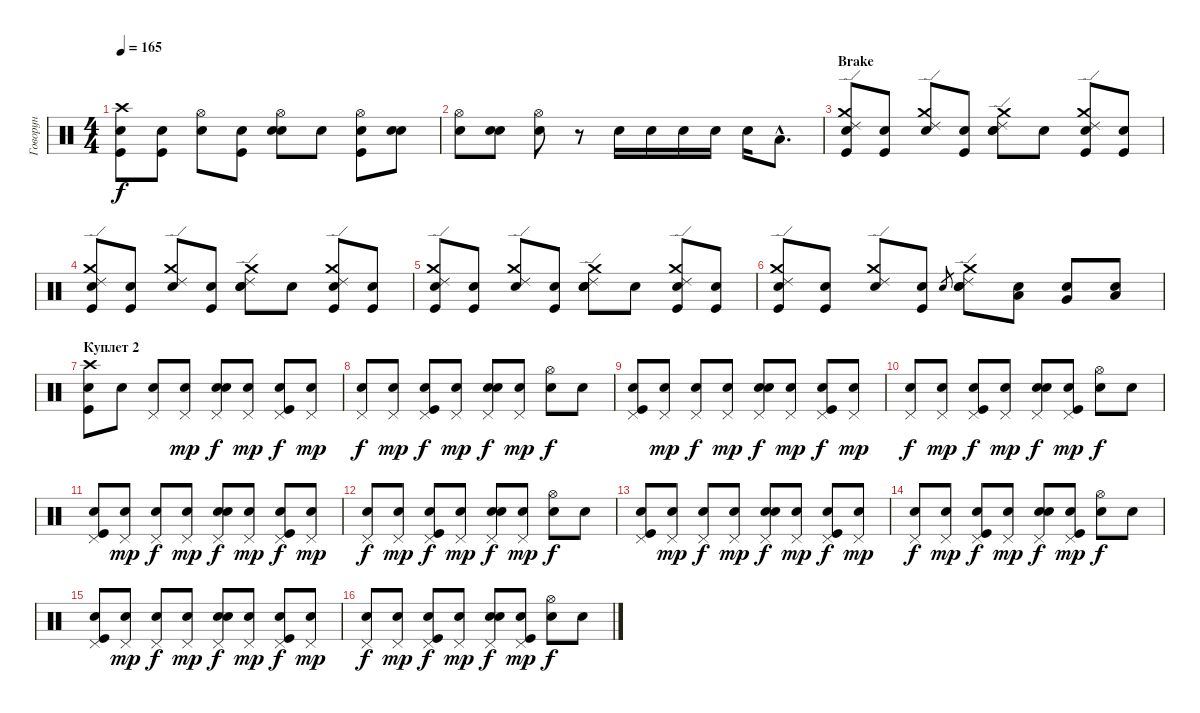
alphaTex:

\track ("Говорун" "Говорун") {instrument percussion}
\staff {score}
\articulation defaults
\ts (4 4)
\tempo 165
\clef neutral
\ks c
("Crash high (hit)" "Kick (hit)" "Snare (hit)"{x}).8{dy f} ("Kick (hit)" "Snare (hit)"{x}).8 ("Hi-Hat (open)" "Snare (hit)"{x}).8 ("Kick (hit)" "Snare (hit)"{x}).8 ("Hi-Hat (open)" "Snare (hit) 2" "Snare (hit)"{x}).8 "Snare (hit)"{x}.8 ("Hi-Hat (open)" "Kick (hit)" "Snare (hit)"{x}).8 ("Snare (hit) 2" "Snare (hit)"{x}).8 |
("Hi-Hat (open)" "Snare (hit)"{x}).8 ("Snare (hit) 2" "Snare (hit)"{x}).8 ("Hi-Hat (open)" "Snare (hit)"{x}).8 r.8 "Snare (hit) 2".16 "Snare (hit) 2".16 "Snare (hit) 2".16 "Snare (hit) 2".16 "Snare (hit) 2".16 "Low Tom (hit)"{hac}.8{d} |
\section ("" "Brake")
("Crash medium (hit)" "Ride (edge) 2" "Kick (hit)" "Snare (hit)"{x}).8 ("Kick (hit)" "Snare (hit)"{x}).8 ("Crash medium (hit)" "Ride (edge) 2" "Snare (hit)"{x}).8 ("Kick (hit)" "Snare (hit)"{x}).8 ("Crash medium (hit)" "Ride (edge) 2" "Snare (hit) 2" "Snare (hit)"{x}).8 "Snare (hit)"{x}.8 ("Crash medium (hit)" "Ride (edge) 2" "Kick (hit)" "Snare (hit)"{x}).8 ("Kick (hit)" "Snare (hit)"{x}).8 |
("Crash medium (hit)" "Ride (edge) 2" "Kick (hit)" "Snare (hit)"{x}).8 ("Kick (hit)" "Snare (hit)"{x}).8 ("Crash medium (hit)" "Ride (edge) 2" "Snare (hit)"{x}).8 ("Kick (hit)" "Snare (hit)"{x}).8 ("Crash medium (hit)" "Ride (edge) 2" "Snare (hit) 2" "Snare (hit)"{x}).8 "Snare (hit)"{x}.8 ("Crash medium (hit)" "Ride (edge) 2" "Kick (hit)" "Snare (hit)"{x}).8 ("Kick (hit)" "Snare (hit)"{x}).8 |
("Crash medium (hit)" "Ride (edge) 2" "Kick (hit)" "Snare (hit)"{x}).8 ("Kick (hit)" "Snare (hit)"{x}).8 ("Crash medium (hit)" "Ride (edge) 2" "Snare (hit)"{x}).8 ("Kick (hit)" "Snare (hit)"{x}).8 ("Crash medium (hit)" "Ride (edge) 2" "Snare (hit) 2" "Snare (hit)"{x}).8 "Snare (hit)"{x}.8 ("Crash medium (hit)" "Ride (edge) 2" "Kick (hit)" "Snare (hit)"{x}).8 ("Kick (hit)" "Snare (hit)"{x}).8 |
("Crash medium (hit)" "Ride (edge) 2" "Kick (hit)" "Snare (hit)"{x}).8 ("Kick (hit)" "Snare (hit)"{x}).8 ("Crash medium (hit)" "Ride (edge) 2" "Snare (hit)"{x}).8 ("Kick (hit)" "Snare (hit)"{x}).8 "Snare (hit) 2".8{gr} ("Crash medium (hit)" "Ride (edge) 2" "Snare (hit) 2" "Snare (hit)"{x}).8 ("Low Tom (hit)" "Snare (hit)"{x}).8 ("Very Low Tom (hit)" "Snare (hit)"{x}).8 ("Low Floor Tom (hit)" "Snare (hit)"{x}).8 |
\section ("" "Куплет 2")
("Crash high (hit)" "Kick (hit)" "Snare (hit)"{x}).8 "Snare (hit)"{x}.8 ("Pedal Hi-Hat (hit)" "Snare (hit)"{x}).8 ("Pedal Hi-Hat (hit)" "Snare (hit)"{x}).8{dy mp} ("Pedal Hi-Hat (hit)" "Snare (hit) 2" "Snare (hit)"{x}).8{dy f} ("Pedal Hi-Hat (hit)" "Snare (hit)"{x}).8{dy mp} ("Pedal Hi-Hat (hit)" "Kick (hit)" "Snare (hit)"{x}).8{dy f} ("Pedal Hi-Hat (hit)" "Snare (hit)"{x}).8{dy mp} |
("Pedal Hi-Hat (hit)" "Snare (hit)"{x}).8{dy f} ("Pedal Hi-Hat (hit)" "Snare (hit)"{x}).8{dy mp} ("Pedal Hi-Hat (hit)" "Kick (hit)" "Snare (hit)"{x}).8{dy f} ("Pedal Hi-Hat (hit)" "Snare (hit)"{x}).8{dy mp} ("Pedal Hi-Hat (hit)" "Snare (hit) 2" "Snare (hit)"{x}).8{dy f} ("Pedal Hi-Hat (hit)" "Snare (hit)"{x}).8{dy mp} ("Hi-Hat (open)" "Snare (hit)"{x}).8{dy f} "Snare (hit)"{x}.8 |
("Pedal Hi-Hat (hit)" "Kick (hit)" "Snare (hit)"{x}).8 ("Pedal Hi-Hat (hit)" "Snare (hit)"{x}).8{dy mp} ("Pedal Hi-Hat (hit)" "Snare (hit)"{x}).8{dy f} ("Pedal Hi-Hat (hit)" "Snare (hit)"{x}).8{dy mp} ("Pedal Hi-Hat (hit)" "Snare (hit) 2" "Snare (hit)"{x}).8{dy f} ("Pedal Hi-Hat (hit)" "Snare (hit)"{x}).8{dy mp} ("Pedal Hi-Hat (hit)" "Kick (hit)" "Snare (hit)"{x}).8{dy f} ("Pedal Hi-Hat (hit)" "Snare (hit)"{x}).8{dy mp} |
("Pedal Hi-Hat (hit)" "Snare (hit)"{x}).8{dy f} ("Pedal Hi-Hat (hit)" "Snare (hit)"{x}).8{dy mp} ("Pedal Hi-Hat (hit)" "Kick (hit)" "Snare (hit)"{x}).8{dy f} ("Pedal Hi-Hat (hit)" "Snare (hit)"{x}).8{dy mp} ("Pedal Hi-Hat (hit)" "Snare (hit) 2" "Snare (hit)"{x}).8{dy f} ("Pedal Hi-Hat (hit)" "Kick (hit)" "Snare (hit)"{x}).8{dy mp} ("Hi-Hat (open)" "Snare (hit)"{x}).8{dy f} "Snare (hit)"{x}.8 |
("Pedal Hi-Hat (hit)" "Kick (hit)" "Snare (hit)"{x}).8 ("Pedal Hi-Hat (hit)" "Snare (hit)"{x}).8{dy mp} ("Pedal Hi-Hat (hit)" "Snare (hit)"{x}).8{dy f} ("Pedal Hi-Hat (hit)" "Snare (hit)"{x}).8{dy mp} ("Pedal Hi-Hat (hit)" "Snare (hit) 2" "Snare (hit)"{x}).8{dy f} ("Pedal Hi-Hat (hit)" "Snare (hit)"{x}).8{dy mp} ("Pedal Hi-Hat (hit)" "Kick (hit)" "Snare (hit)"{x}).8{dy f} ("Pedal Hi-Hat (hit)" "Snare (hit)"{x}).8{dy mp} |
("Pedal Hi-Hat (hit)" "Snare (hit)"{x}).8{dy f} ("Pedal Hi-Hat (hit)" "Snare (hit)"{x}).8{dy mp} ("Pedal Hi-Hat (hit)" "Kick (hit)" "Snare (hit)"{x}).8{dy f} ("Pedal Hi-Hat (hit)" "Snare (hit)"{x}).8{dy mp} ("Pedal Hi-Hat (hit)" "Snare (hit) 2" "Snare (hit)"{x}).8{dy f} ("Pedal Hi-Hat (hit)" "Snare (hit)"{x}).8{dy mp} ("Hi-Hat (open)" "Snare (hit)"{x}).8{dy f} "Snare (hit)"{x}.8 |
("Pedal Hi-Hat (hit)" "Kick (hit)" "Snare (hit)"{x}).8 ("Pedal Hi-Hat (hit)" "Snare (hit)"{x}).8{dy mp} ("Pedal Hi-Hat (hit)" "Snare (hit)"{x}).8{dy f} ("Pedal Hi-Hat (hit)" "Snare (hit)"{x}).8{dy mp} ("Pedal Hi-Hat (hit)" "Snare (hit) 2" "Snare (hit)"{x}).8{dy f} ("Pedal Hi-Hat (hit)" "Snare (hit)"{x}).8{dy mp} ("Pedal Hi-Hat (hit)" "Kick (hit)" "Snare (hit)"{x}).8{dy f} ("Pedal Hi-Hat (hit)" "Snare (hit)"{x}).8{dy mp} |
("Pedal Hi-Hat (hit)" "Snare (hit)"{x}).8{dy f} ("Pedal Hi-Hat (hit)" "Snare (hit)"{x}).8{dy mp} ("Pedal Hi-Hat (hit)" "Kick (hit)" "Snare (hit)"{x}).8{dy f} ("Pedal Hi-Hat (hit)" "Snare (hit)"{x}).8{dy mp} ("Pedal Hi-Hat (hit)" "Snare (hit) 2" "Snare (hit)"{x}).8{dy f} ("Pedal Hi-Hat (hit)" "Kick (hit)" "Snare (hit)"{x}).8{dy mp} ("Hi-Hat (open)" "Snare (hit)"{x}).8{dy f} "Snare (hit)"{x}.8 |
("Pedal Hi-Hat (hit)" "Kick (hit)" "Snare (hit)"{x}).8 ("Pedal Hi-Hat (hit)" "Snare (hit)"{x}).8{dy mp} ("Pedal Hi-Hat (hit)" "Snare (hit)"{x}).8{dy f} ("Pedal Hi-Hat (hit)" "Snare (hit)"{x}).8{dy mp} ("Pedal Hi-Hat (hit)" "Snare (hit) 2" "Snare (hit)"{x}).8{dy f} ("Pedal Hi-Hat (hit)" "Snare (hit)"{x}).8{dy mp} ("Pedal Hi-Hat (hit)" "Kick (hit)" "Snare (hit)"{x}).8{dy f} ("Pedal Hi-Hat (hit)" "Snare (hit)"{x}).8{dy mp} |
("Pedal Hi-Hat (hit)" "Snare (hit)"{x}).8{dy f} ("Pedal Hi-Hat (hit)" "Snare (hit)"{x}).8{dy mp} ("Pedal Hi-Hat (hit)" "Kick (hit)" "Snare (hit)"{x}).8{dy f} ("Pedal Hi-Hat (hit)" "Snare (hit)"{x}).8{dy mp} ("Pedal Hi-Hat (hit)" "Snare (hit) 2" "Snare (hit)"{x}).8{dy f} ("Pedal Hi-Hat (hit)" "Kick (hit)" "Snare (hit)"{x}).8{dy mp} ("Hi-Hat (open)" "Snare (hit)"{x}).8{dy f} "Snare (hit)"{x}.8
